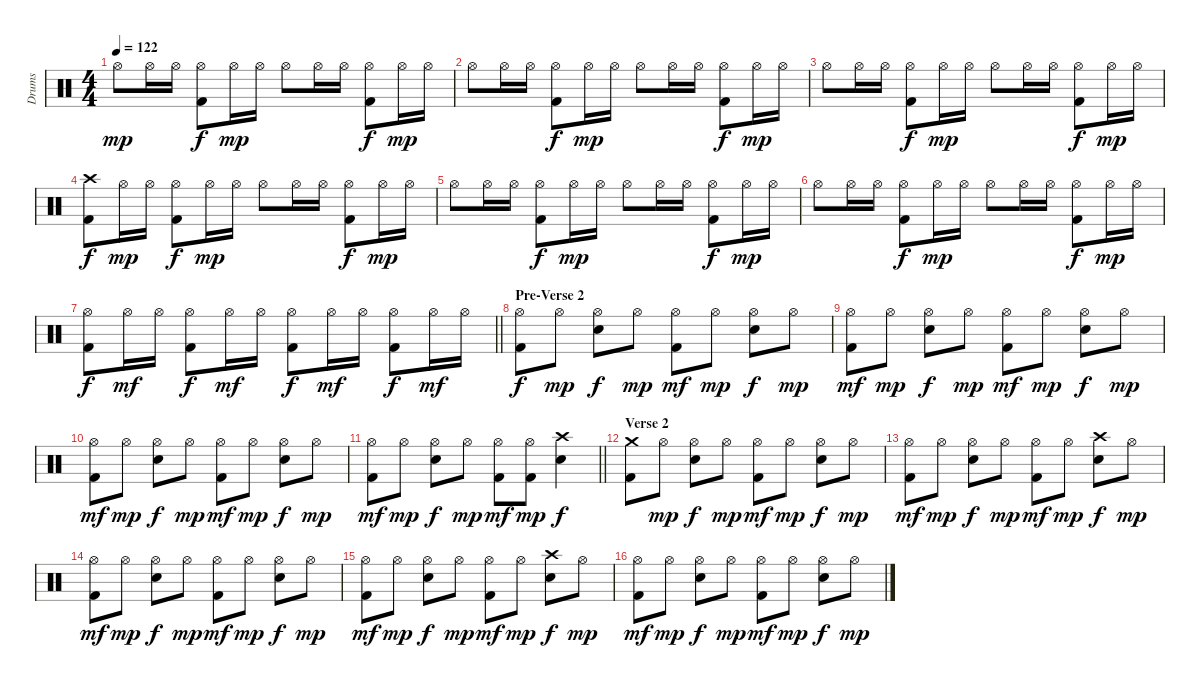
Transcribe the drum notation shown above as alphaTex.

\track ("Drums" "Drums") {instrument percussion}
\staff {score}
\articulation defaults
\ts (4 4)
\tempo 122
\clef neutral
\ks c "Hi-Hat (open)".8{dy mp} "Hi-Hat (open)".16 "Hi-Hat (open)".16
("Hi-Hat (open)" "Kick (hit) 2").8{dy f} "Hi-Hat (open)".16{dy mp} "Hi-Hat (open)".16 "Hi-Hat (open)".8 "Hi-Hat (open)".16 "Hi-Hat (open)".16 ("Hi-Hat (open)" "Kick (hit) 2").8{dy f} "Hi-Hat (open)".16{dy mp} "Hi-Hat (open)".16 |
"Hi-Hat (open)".8 "Hi-Hat (open)".16 "Hi-Hat (open)".16 ("Hi-Hat (open)" "Kick (hit) 2").8{dy f} "Hi-Hat (open)".16{dy mp} "Hi-Hat (open)".16 "Hi-Hat (open)".8 "Hi-Hat (open)".16 "Hi-Hat (open)".16 ("Hi-Hat (open)" "Kick (hit) 2").8{dy f} "Hi-Hat (open)".16{dy mp} "Hi-Hat (open)".16 |
"Hi-Hat (open)".8 "Hi-Hat (open)".16 "Hi-Hat (open)".16 ("Hi-Hat (open)" "Kick (hit) 2").8{dy f} "Hi-Hat (open)".16{dy mp} "Hi-Hat (open)".16 "Hi-Hat (open)".8 "Hi-Hat (open)".16 "Hi-Hat (open)".16 ("Hi-Hat (open)" "Kick (hit) 2").8{dy f} "Hi-Hat (open)".16{dy mp} "Hi-Hat (open)".16 |
("Crash high (hit)" "Kick (hit) 2").8{dy f} "Hi-Hat (open)".16{dy mp} "Hi-Hat (open)".16 ("Hi-Hat (open)" "Kick (hit) 2").8{dy f} "Hi-Hat (open)".16{dy mp} "Hi-Hat (open)".16 "Hi-Hat (open)".8 "Hi-Hat (open)".16 "Hi-Hat (open)".16 ("Hi-Hat (open)" "Kick (hit) 2").8{dy f} "Hi-Hat (open)".16{dy mp} "Hi-Hat (open)".16 |
"Hi-Hat (open)".8 "Hi-Hat (open)".16 "Hi-Hat (open)".16 ("Hi-Hat (open)" "Kick (hit) 2").8{dy f} "Hi-Hat (open)".16{dy mp} "Hi-Hat (open)".16 "Hi-Hat (open)".8 "Hi-Hat (open)".16 "Hi-Hat (open)".16 ("Hi-Hat (open)" "Kick (hit) 2").8{dy f} "Hi-Hat (open)".16{dy mp} "Hi-Hat (open)".16 |
"Hi-Hat (open)".8 "Hi-Hat (open)".16 "Hi-Hat (open)".16 ("Hi-Hat (open)" "Kick (hit) 2").8{dy f} "Hi-Hat (open)".16{dy mp} "Hi-Hat (open)".16 "Hi-Hat (open)".8 "Hi-Hat (open)".16 "Hi-Hat (open)".16 ("Hi-Hat (open)" "Kick (hit) 2").8{dy f} "Hi-Hat (open)".16{dy mp} "Hi-Hat (open)".16 |
\barLineRight lightlight
("Hi-Hat (open)" "Kick (hit) 2").8{dy f} "Hi-Hat (open)".16{dy mf} "Hi-Hat (open)".16 ("Hi-Hat (open)" "Kick (hit) 2").8{dy f} "Hi-Hat (open)".16{dy mf} "Hi-Hat (open)".16 ("Hi-Hat (open)" "Kick (hit) 2").8{dy f} "Hi-Hat (open)".16{dy mf} "Hi-Hat (open)".16 ("Hi-Hat (open)" "Kick (hit) 2").8{dy f} "Hi-Hat (open)".16{dy mf} "Hi-Hat (open)".16 |
\section ("" "Pre-Verse 2")
("Hi-Hat (open)" "Kick (hit) 2").8{dy f} "Hi-Hat (open)".8{dy mp} ("Hi-Hat (open)" "Electric Snare (hit)").8{dy f} "Hi-Hat (open)".8{dy mp} ("Hi-Hat (open)" "Kick (hit) 2").8{dy mf} "Hi-Hat (open)".8{dy mp} ("Hi-Hat (open)" "Electric Snare (hit)").8{dy f} "Hi-Hat (open)".8{dy mp} |
("Hi-Hat (open)" "Kick (hit) 2").8{dy mf} "Hi-Hat (open)".8{dy mp} ("Hi-Hat (open)" "Electric Snare (hit)").8{dy f} "Hi-Hat (open)".8{dy mp} ("Hi-Hat (open)" "Kick (hit) 2").8{dy mf} "Hi-Hat (open)".8{dy mp} ("Hi-Hat (open)" "Electric Snare (hit)").8{dy f} "Hi-Hat (open)".8{dy mp} |
("Hi-Hat (open)" "Kick (hit) 2").8{dy mf} "Hi-Hat (open)".8{dy mp} ("Hi-Hat (open)" "Electric Snare (hit)").8{dy f} "Hi-Hat (open)".8{dy mp} ("Hi-Hat (open)" "Kick (hit) 2").8{dy mf} "Hi-Hat (open)".8{dy mp} ("Hi-Hat (open)" "Electric Snare (hit)").8{dy f} "Hi-Hat (open)".8{dy mp} |
\barLineRight lightlight
("Hi-Hat (open)" "Kick (hit) 2").8{dy mf} "Hi-Hat (open)".8{dy mp} ("Hi-Hat (open)" "Electric Snare (hit)").8{dy f} "Hi-Hat (open)".8{dy mp} ("Hi-Hat (open)" "Kick (hit) 2").8{dy mf} ("Hi-Hat (open)" "Kick (hit) 2").8{dy mp} ("Crash high (hit)" "Electric Snare (hit)").4{dy f} |
\section ("" "Verse 2")
("Crash medium (hit)" "Kick (hit) 2").8 "Hi-Hat (open)".8{dy mp} ("Hi-Hat (open)" "Electric Snare (hit)").8{dy f} "Hi-Hat (open)".8{dy mp} ("Hi-Hat (open)" "Kick (hit) 2").8{dy mf} "Hi-Hat (open)".8{dy mp} ("Hi-Hat (open)" "Electric Snare (hit)").8{dy f} "Hi-Hat (open)".8{dy mp} |
("Hi-Hat (open)" "Kick (hit) 2").8{dy mf} "Hi-Hat (open)".8{dy mp} ("Hi-Hat (open)" "Electric Snare (hit)").8{dy f} "Hi-Hat (open)".8{dy mp} ("Hi-Hat (open)" "Kick (hit) 2").8{dy mf} "Hi-Hat (open)".8{dy mp} ("Crash high (hit)" "Electric Snare (hit)").8{dy f} "Hi-Hat (open)".8{dy mp} |
("Hi-Hat (open)" "Kick (hit) 2").8{dy mf} "Hi-Hat (open)".8{dy mp} ("Hi-Hat (open)" "Electric Snare (hit)").8{dy f} "Hi-Hat (open)".8{dy mp} ("Hi-Hat (open)" "Kick (hit) 2").8{dy mf} "Hi-Hat (open)".8{dy mp} ("Hi-Hat (open)" "Electric Snare (hit)").8{dy f} "Hi-Hat (open)".8{dy mp} |
("Hi-Hat (open)" "Kick (hit) 2").8{dy mf} "Hi-Hat (open)".8{dy mp} ("Hi-Hat (open)" "Electric Snare (hit)").8{dy f} "Hi-Hat (open)".8{dy mp} ("Hi-Hat (open)" "Kick (hit) 2").8{dy mf} "Hi-Hat (open)".8{dy mp} ("Crash high (hit)" "Electric Snare (hit)").8{dy f} "Hi-Hat (open)".8{dy mp} |
("Hi-Hat (open)" "Kick (hit) 2").8{dy mf} "Hi-Hat (open)".8{dy mp} ("Hi-Hat (open)" "Electric Snare (hit)").8{dy f} "Hi-Hat (open)".8{dy mp} ("Hi-Hat (open)" "Kick (hit) 2").8{dy mf} "Hi-Hat (open)".8{dy mp} ("Hi-Hat (open)" "Electric Snare (hit)").8{dy f} "Hi-Hat (open)".8{dy mp}
